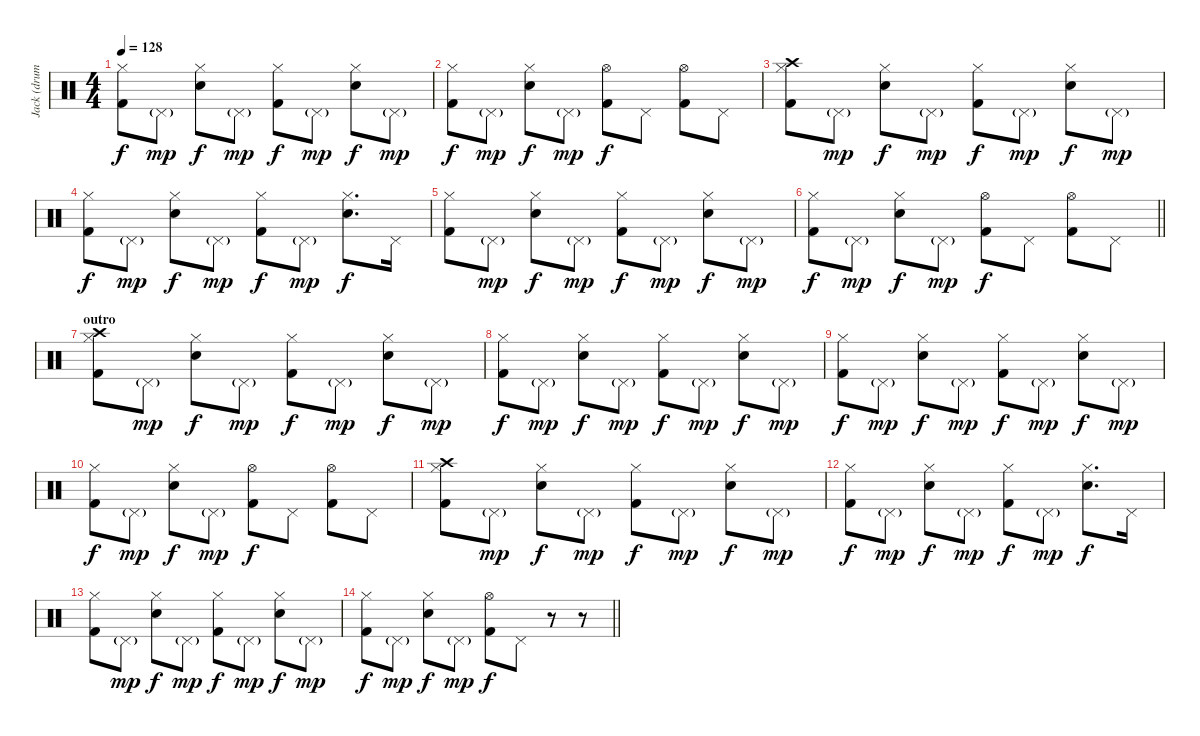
\track ("Jack (drums)" "Jack (drum") {instrument percussion}
\staff {score}
\articulation defaults
\ts (4 4)
\tempo 128
\clef neutral
\ks c
("Hi-Hat (closed)" "Kick (hit) 2").8{dy f} "Pedal Hi-Hat (hit)"{g}.8{dy mp} ("Hi-Hat (closed)" "Snare (hit) 2").8{dy f} "Pedal Hi-Hat (hit)"{g}.8{dy mp} ("Hi-Hat (closed)" "Kick (hit) 2").8{dy f} "Pedal Hi-Hat (hit)"{g}.8{dy mp} ("Hi-Hat (closed)" "Snare (hit) 2").8{dy f} "Pedal Hi-Hat (hit)"{g}.8{dy mp} |
("Hi-Hat (closed)" "Kick (hit) 2").8{dy f} "Pedal Hi-Hat (hit)"{g}.8{dy mp} ("Hi-Hat (closed)" "Snare (hit) 2").8{dy f} "Pedal Hi-Hat (hit)"{g}.8{dy mp} ("Hi-Hat (open)" "Kick (hit) 2").8{dy f} "Pedal Hi-Hat (hit)".8 ("Hi-Hat (open)" "Kick (hit) 2").8 "Pedal Hi-Hat (hit)".8 |
("Hi-Hat (closed)" "Crash high (hit)" "Kick (hit) 2").8 "Pedal Hi-Hat (hit)"{g}.8{dy mp} ("Hi-Hat (closed)" "Snare (hit) 2").8{dy f} "Pedal Hi-Hat (hit)"{g}.8{dy mp} ("Hi-Hat (closed)" "Kick (hit) 2").8{dy f} "Pedal Hi-Hat (hit)"{g}.8{dy mp} ("Hi-Hat (closed)" "Snare (hit) 2").8{dy f} "Pedal Hi-Hat (hit)"{g}.8{dy mp} |
("Hi-Hat (closed)" "Kick (hit) 2").8{dy f} "Pedal Hi-Hat (hit)"{g}.8{dy mp} ("Hi-Hat (closed)" "Snare (hit) 2").8{dy f} "Pedal Hi-Hat (hit)"{g}.8{dy mp} ("Hi-Hat (closed)" "Kick (hit) 2").8{dy f} "Pedal Hi-Hat (hit)"{g}.8{dy mp} ("Hi-Hat (closed)" "Snare (hit) 2").8{d dy f} "Pedal Hi-Hat (hit)".16 |
("Hi-Hat (closed)" "Kick (hit) 2").8 "Pedal Hi-Hat (hit)"{g}.8{dy mp} ("Hi-Hat (closed)" "Snare (hit) 2").8{dy f} "Pedal Hi-Hat (hit)"{g}.8{dy mp} ("Hi-Hat (closed)" "Kick (hit) 2").8{dy f} "Pedal Hi-Hat (hit)"{g}.8{dy mp} ("Hi-Hat (closed)" "Snare (hit) 2").8{dy f} "Pedal Hi-Hat (hit)"{g}.8{dy mp} |
\barLineRight lightlight
("Hi-Hat (closed)" "Kick (hit) 2").8{dy f} "Pedal Hi-Hat (hit)"{g}.8{dy mp} ("Hi-Hat (closed)" "Snare (hit) 2").8{dy f} "Pedal Hi-Hat (hit)"{g}.8{dy mp} ("Hi-Hat (open)" "Kick (hit) 2").8{dy f} "Pedal Hi-Hat (hit)".8 ("Hi-Hat (open)" "Kick (hit) 2").8 "Pedal Hi-Hat (hit)".8 |
\section ("" "outro")
("Hi-Hat (closed)" "Crash high (hit)" "Kick (hit) 2").8 "Pedal Hi-Hat (hit)"{g}.8{dy mp} ("Hi-Hat (closed)" "Snare (hit) 2").8{dy f} "Pedal Hi-Hat (hit)"{g}.8{dy mp} ("Hi-Hat (closed)" "Kick (hit) 2").8{dy f} "Pedal Hi-Hat (hit)"{g}.8{dy mp} ("Hi-Hat (closed)" "Snare (hit) 2").8{dy f} "Pedal Hi-Hat (hit)"{g}.8{dy mp} |
("Hi-Hat (closed)" "Kick (hit) 2").8{dy f} "Pedal Hi-Hat (hit)"{g}.8{dy mp} ("Hi-Hat (closed)" "Snare (hit) 2").8{dy f} "Pedal Hi-Hat (hit)"{g}.8{dy mp} ("Hi-Hat (closed)" "Kick (hit) 2").8{dy f} "Pedal Hi-Hat (hit)"{g}.8{dy mp} ("Hi-Hat (closed)" "Snare (hit) 2").8{dy f} "Pedal Hi-Hat (hit)"{g}.8{dy mp} |
("Hi-Hat (closed)" "Kick (hit) 2").8{dy f} "Pedal Hi-Hat (hit)"{g}.8{dy mp} ("Hi-Hat (closed)" "Snare (hit) 2").8{dy f} "Pedal Hi-Hat (hit)"{g}.8{dy mp} ("Hi-Hat (closed)" "Kick (hit) 2").8{dy f} "Pedal Hi-Hat (hit)"{g}.8{dy mp} ("Hi-Hat (closed)" "Snare (hit) 2").8{dy f} "Pedal Hi-Hat (hit)"{g}.8{dy mp} |
("Hi-Hat (closed)" "Kick (hit) 2").8{dy f} "Pedal Hi-Hat (hit)"{g}.8{dy mp} ("Hi-Hat (closed)" "Snare (hit) 2").8{dy f} "Pedal Hi-Hat (hit)"{g}.8{dy mp} ("Hi-Hat (open)" "Kick (hit) 2").8{dy f} "Pedal Hi-Hat (hit)".8 ("Hi-Hat (open)" "Kick (hit) 2").8 "Pedal Hi-Hat (hit)".8 |
("Hi-Hat (closed)" "Crash high (hit)" "Kick (hit) 2").8 "Pedal Hi-Hat (hit)"{g}.8{dy mp} ("Hi-Hat (closed)" "Snare (hit) 2").8{dy f} "Pedal Hi-Hat (hit)"{g}.8{dy mp} ("Hi-Hat (closed)" "Kick (hit) 2").8{dy f} "Pedal Hi-Hat (hit)"{g}.8{dy mp} ("Hi-Hat (closed)" "Snare (hit) 2").8{dy f} "Pedal Hi-Hat (hit)"{g}.8{dy mp} |
("Hi-Hat (closed)" "Kick (hit) 2").8{dy f} "Pedal Hi-Hat (hit)"{g}.8{dy mp} ("Hi-Hat (closed)" "Snare (hit) 2").8{dy f} "Pedal Hi-Hat (hit)"{g}.8{dy mp} ("Hi-Hat (closed)" "Kick (hit) 2").8{dy f} "Pedal Hi-Hat (hit)"{g}.8{dy mp} ("Hi-Hat (closed)" "Snare (hit) 2").8{d dy f} "Pedal Hi-Hat (hit)".16 |
("Hi-Hat (closed)" "Kick (hit) 2").8 "Pedal Hi-Hat (hit)"{g}.8{dy mp} ("Hi-Hat (closed)" "Snare (hit) 2").8{dy f} "Pedal Hi-Hat (hit)"{g}.8{dy mp} ("Hi-Hat (closed)" "Kick (hit) 2").8{dy f} "Pedal Hi-Hat (hit)"{g}.8{dy mp} ("Hi-Hat (closed)" "Snare (hit) 2").8{dy f} "Pedal Hi-Hat (hit)"{g}.8{dy mp} |
\barLineRight lightlight
("Hi-Hat (closed)" "Kick (hit) 2").8{dy f} "Pedal Hi-Hat (hit)"{g}.8{dy mp} ("Hi-Hat (closed)" "Snare (hit) 2").8{dy f} "Pedal Hi-Hat (hit)"{g}.8{dy mp} ("Hi-Hat (open)" "Kick (hit) 2").8{dy f} "Pedal Hi-Hat (hit)".8 r.8 r.8
